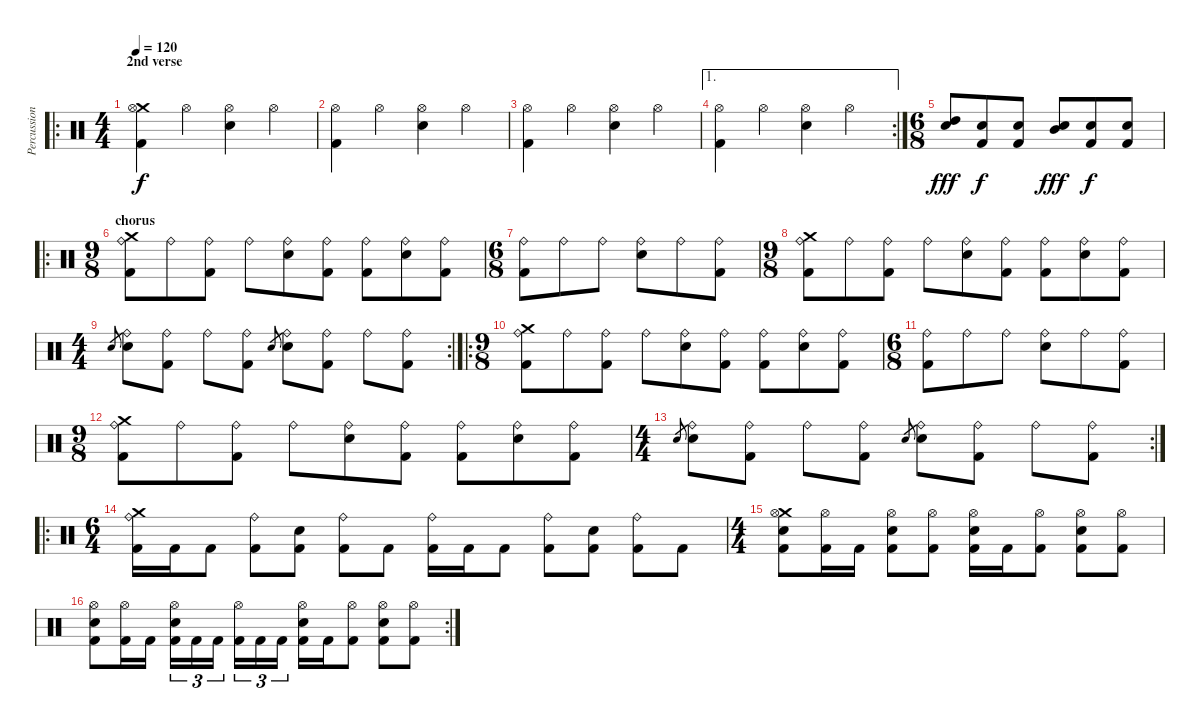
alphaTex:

\track ("Percussion" "Percussion") {instrument percussion}
\staff {score}
\articulation defaults
\ro
\ts (4 4)
\section ("" "2nd verse")
\tempo 120
\clef neutral
\ks c
("Crash medium (hit)" "Hi-Hat (open)" "Kick (hit) 2").4{dy f} "Hi-Hat (open)".4 ("Hi-Hat (open)" "Electric Snare (hit)").4 "Hi-Hat (open)".4 |
("Hi-Hat (open)" "Kick (hit) 2").4 "Hi-Hat (open)".4 ("Hi-Hat (open)" "Electric Snare (hit)").4 "Hi-Hat (open)".4 |
("Hi-Hat (open)" "Kick (hit) 2").4 "Hi-Hat (open)".4 ("Hi-Hat (open)" "Electric Snare (hit)").4 "Hi-Hat (open)".4 |
\ae 1
\rc 2
("Hi-Hat (open)" "Kick (hit) 2").4 "Hi-Hat (open)".4 ("Hi-Hat (open)" "Electric Snare (hit)").4 "Hi-Hat (open)".4 |
\ts (6 8)
("High Tom (hit)" "Electric Snare (hit)").8{dy fff} ("Electric Snare (hit)" "Kick (hit) 2").8{dy f} ("Electric Snare (hit)" "Kick (hit) 2").8 ("Mid Tom (hit)" "Electric Snare (hit)").8{dy fff} ("Electric Snare (hit)" "Kick (hit) 2").8{dy f} ("Electric Snare (hit)" "Kick (hit) 2").8 |
\ro
\ts (9 8)
\section ("" "chorus")
("Crash medium (hit)" "Ride (bell)" "Kick (hit) 2").8 "Ride (bell)".8 ("Ride (bell)" "Kick (hit) 2").8 "Ride (bell)".8 ("Ride (bell)" "Electric Snare (hit)").8 ("Ride (bell)" "Kick (hit) 2").8 ("Ride (bell)" "Kick (hit) 2").8 ("Ride (bell)" "Electric Snare (hit)").8 ("Ride (bell)" "Kick (hit) 2").8 |
\ts (6 8)
("Ride (bell)" "Kick (hit) 2").8 "Ride (bell)".8 "Ride (bell)".8 ("Ride (bell)" "Electric Snare (hit)").8 "Ride (bell)".8 ("Ride (bell)" "Kick (hit) 2").8 |
\ts (9 8)
("Crash medium (hit)" "Ride (bell)" "Kick (hit) 2").8 "Ride (bell)".8 ("Ride (bell)" "Kick (hit) 2").8 "Ride (bell)".8 ("Ride (bell)" "Electric Snare (hit)").8 ("Ride (bell)" "Kick (hit) 2").8 ("Ride (bell)" "Kick (hit) 2").8 ("Ride (bell)" "Electric Snare (hit)").8 ("Ride (bell)" "Kick (hit) 2").8 |
\rc 2
\ts (4 4)
"Electric Snare (hit)".8{gr} ("Ride (bell)" "Electric Snare (hit)").8 ("Ride (bell)" "Kick (hit) 2").8 "Ride (bell)".8 ("Ride (bell)" "Kick (hit) 2").8 "Electric Snare (hit)".8{gr} ("Ride (bell)" "Electric Snare (hit)").8 ("Ride (bell)" "Kick (hit) 2").8 "Ride (bell)".8 ("Ride (bell)" "Kick (hit) 2").8 |
\ro
\ts (9 8)
("Crash medium (hit)" "Ride (bell)" "Kick (hit) 2").8 "Ride (bell)".8 ("Ride (bell)" "Kick (hit) 2").8 "Ride (bell)".8 ("Ride (bell)" "Electric Snare (hit)").8 ("Ride (bell)" "Kick (hit) 2").8 ("Ride (bell)" "Kick (hit) 2").8 ("Ride (bell)" "Electric Snare (hit)").8 ("Ride (bell)" "Kick (hit) 2").8 |
\ts (6 8)
("Ride (bell)" "Kick (hit) 2").8 "Ride (bell)".8 "Ride (bell)".8 ("Ride (bell)" "Electric Snare (hit)").8 "Ride (bell)".8 ("Ride (bell)" "Kick (hit) 2").8 |
\ts (9 8)
("Crash medium (hit)" "Ride (bell)" "Kick (hit) 2").8 "Ride (bell)".8 ("Ride (bell)" "Kick (hit) 2").8 "Ride (bell)".8 ("Ride (bell)" "Electric Snare (hit)").8 ("Ride (bell)" "Kick (hit) 2").8 ("Ride (bell)" "Kick (hit) 2").8 ("Ride (bell)" "Electric Snare (hit)").8 ("Ride (bell)" "Kick (hit) 2").8 |
\rc 2
\ts (4 4)
"Electric Snare (hit)".8{gr} ("Ride (bell)" "Electric Snare (hit)").8 ("Ride (bell)" "Kick (hit) 2").8 "Ride (bell)".8 ("Ride (bell)" "Kick (hit) 2").8 "Electric Snare (hit)".8{gr} ("Ride (bell)" "Electric Snare (hit)").8 ("Ride (bell)" "Kick (hit) 2").8 "Ride (bell)".8 ("Ride (bell)" "Kick (hit) 2").8 |
\ro
\ts (6 4)
("Crash medium (hit)" "Ride (bell)" "Kick (hit) 2").16 "Kick (hit) 2".16 "Kick (hit) 2".8 ("Ride (bell)" "Kick (hit) 2").8 ("Electric Snare (hit)" "Kick (hit) 2").8 ("Ride (bell)" "Kick (hit) 2").8 "Kick (hit) 2".8 ("Ride (bell)" "Kick (hit) 2").16 "Kick (hit) 2".16 "Kick (hit) 2".8 ("Ride (bell)" "Kick (hit) 2").8 ("Electric Snare (hit)" "Kick (hit) 2").8 ("Ride (bell)" "Kick (hit) 2").8 "Kick (hit) 2".8 |
\ts (4 4)
("Crash medium (hit)" "Hi-Hat (open)" "Electric Snare (hit)" "Kick (hit) 2").8 ("Hi-Hat (open)" "Kick (hit) 2").16 "Kick (hit) 2".16 ("Hi-Hat (open)" "Electric Snare (hit)" "Kick (hit) 2").8 ("Hi-Hat (open)" "Kick (hit) 2").8 ("Hi-Hat (open)" "Electric Snare (hit)" "Kick (hit) 2").16 "Kick (hit) 2".16 ("Hi-Hat (open)" "Kick (hit) 2").8 ("Hi-Hat (open)" "Electric Snare (hit)" "Kick (hit) 2").8 ("Hi-Hat (open)" "Kick (hit) 2").8 |
\rc 2
("Hi-Hat (open)" "Electric Snare (hit)" "Kick (hit) 2").8 ("Hi-Hat (open)" "Kick (hit) 2").16 "Kick (hit) 2".16 ("Hi-Hat (open)" "Electric Snare (hit)" "Kick (hit) 2").16{tu (3 2)} "Kick (hit) 2".16{tu (3 2)} "Kick (hit) 2".16{tu (3 2)} ("Hi-Hat (open)" "Kick (hit) 2").16{tu (3 2)} "Kick (hit) 2".16{tu (3 2)} "Kick (hit) 2".16{tu (3 2)} ("Hi-Hat (open)" "Electric Snare (hit)" "Kick (hit) 2").16 "Kick (hit) 2".16 ("Hi-Hat (open)" "Kick (hit) 2").8 ("Hi-Hat (open)" "Electric Snare (hit)" "Kick (hit) 2").8 ("Hi-Hat (open)" "Kick (hit) 2").8
